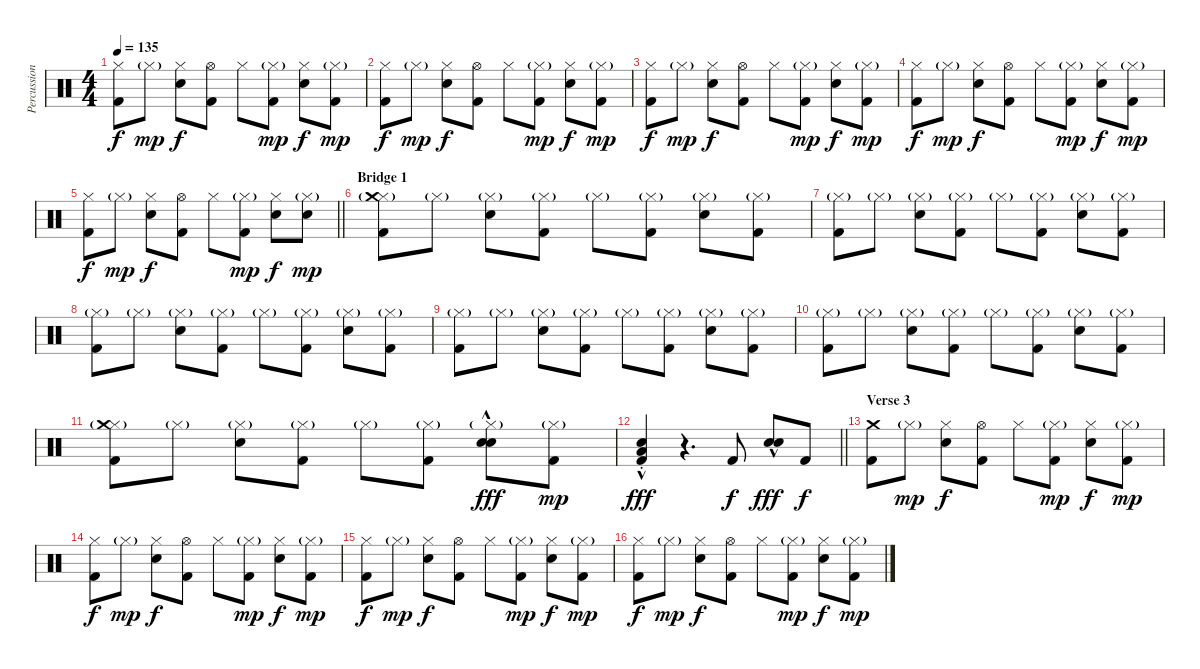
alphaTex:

\track ("Percussion 1" "Percussion") {instrument percussion}
\staff {score}
\articulation defaults
\ts (4 4)
\tempo 135
\clef neutral
\ks c
("Hi-Hat (closed)" "Kick (hit) 2").8{dy f} "Hi-Hat (closed)"{g}.8{dy mp} ("Hi-Hat (closed)" "Electric Snare (hit)").8{dy f} ("Hi-Hat (open)" "Kick (hit) 2").8 "Hi-Hat (closed)".8 ("Hi-Hat (closed)"{g} "Kick (hit) 2").8{dy mp} ("Hi-Hat (closed)" "Electric Snare (hit)").8{dy f} ("Hi-Hat (closed)"{g} "Kick (hit) 2").8{dy mp} |
("Hi-Hat (closed)" "Kick (hit) 2").8{dy f} "Hi-Hat (closed)"{g}.8{dy mp} ("Hi-Hat (closed)" "Electric Snare (hit)").8{dy f} ("Hi-Hat (open)" "Kick (hit) 2").8 "Hi-Hat (closed)".8 ("Hi-Hat (closed)"{g} "Kick (hit) 2").8{dy mp} ("Hi-Hat (closed)" "Electric Snare (hit)").8{dy f} ("Hi-Hat (closed)"{g} "Kick (hit) 2").8{dy mp} |
("Hi-Hat (closed)" "Kick (hit) 2").8{dy f} "Hi-Hat (closed)"{g}.8{dy mp} ("Hi-Hat (closed)" "Electric Snare (hit)").8{dy f} ("Hi-Hat (open)" "Kick (hit) 2").8 "Hi-Hat (closed)".8 ("Hi-Hat (closed)"{g} "Kick (hit) 2").8{dy mp} ("Hi-Hat (closed)" "Electric Snare (hit)").8{dy f} ("Hi-Hat (closed)"{g} "Kick (hit) 2").8{dy mp} |
("Hi-Hat (closed)" "Kick (hit) 2").8{dy f} "Hi-Hat (closed)"{g}.8{dy mp} ("Hi-Hat (closed)" "Electric Snare (hit)").8{dy f} ("Hi-Hat (open)" "Kick (hit) 2").8 "Hi-Hat (closed)".8 ("Hi-Hat (closed)"{g} "Kick (hit) 2").8{dy mp} ("Hi-Hat (closed)" "Electric Snare (hit)").8{dy f} ("Hi-Hat (closed)"{g} "Kick (hit) 2").8{dy mp} |
\barLineRight lightlight
("Hi-Hat (closed)" "Kick (hit) 2").8{dy f} "Hi-Hat (closed)"{g}.8{dy mp} ("Hi-Hat (closed)" "Electric Snare (hit)").8{dy f} ("Hi-Hat (open)" "Kick (hit) 2").8 "Hi-Hat (closed)".8 ("Hi-Hat (closed)"{g} "Kick (hit) 2").8{dy mp} ("Hi-Hat (closed)" "Electric Snare (hit)").8{dy f} ("Hi-Hat (closed)"{g} "Electric Snare (hit)").8{dy mp} |
\section ("" "Bridge 1")
("Hi-Hat (closed)"{g} "Crash medium (hit)" "Kick (hit) 2").8 "Hi-Hat (closed)"{g}.8 ("Hi-Hat (closed)"{g} "Electric Snare (hit)").8 ("Hi-Hat (closed)"{g} "Kick (hit) 2").8 "Hi-Hat (closed)"{g}.8 ("Hi-Hat (closed)"{g} "Kick (hit) 2").8 ("Hi-Hat (closed)"{g} "Electric Snare (hit)").8 ("Hi-Hat (closed)"{g} "Kick (hit) 2").8 |
("Hi-Hat (closed)"{g} "Kick (hit) 2").8 "Hi-Hat (closed)"{g}.8 ("Hi-Hat (closed)"{g} "Electric Snare (hit)").8 ("Hi-Hat (closed)"{g} "Kick (hit) 2").8 "Hi-Hat (closed)"{g}.8 ("Hi-Hat (closed)"{g} "Kick (hit) 2").8 ("Hi-Hat (closed)"{g} "Electric Snare (hit)").8 ("Hi-Hat (closed)"{g} "Kick (hit) 2").8 |
("Hi-Hat (closed)"{g} "Kick (hit) 2").8 "Hi-Hat (closed)"{g}.8 ("Hi-Hat (closed)"{g} "Electric Snare (hit)").8 ("Hi-Hat (closed)"{g} "Kick (hit) 2").8 "Hi-Hat (closed)"{g}.8 ("Hi-Hat (closed)"{g} "Kick (hit) 2").8 ("Hi-Hat (closed)"{g} "Electric Snare (hit)").8 ("Hi-Hat (closed)"{g} "Kick (hit) 2").8 |
("Hi-Hat (closed)"{g} "Kick (hit) 2").8 "Hi-Hat (closed)"{g}.8 ("Hi-Hat (closed)"{g} "Electric Snare (hit)").8 ("Hi-Hat (closed)"{g} "Kick (hit) 2").8 "Hi-Hat (closed)"{g}.8 ("Hi-Hat (closed)"{g} "Kick (hit) 2").8 ("Hi-Hat (closed)"{g} "Electric Snare (hit)").8 ("Hi-Hat (closed)"{g} "Kick (hit) 2").8 |
("Hi-Hat (closed)"{g} "Kick (hit) 2").8 "Hi-Hat (closed)"{g}.8 ("Hi-Hat (closed)"{g} "Electric Snare (hit)").8 ("Hi-Hat (closed)"{g} "Kick (hit) 2").8 "Hi-Hat (closed)"{g}.8 ("Hi-Hat (closed)"{g} "Kick (hit) 2").8 ("Hi-Hat (closed)"{g} "Electric Snare (hit)").8 ("Hi-Hat (closed)"{g} "Kick (hit) 2").8 |
("Hi-Hat (closed)"{g} "Crash medium (hit)" "Kick (hit) 2").8 "Hi-Hat (closed)"{g}.8 ("Hi-Hat (closed)"{g} "Electric Snare (hit)").8 ("Hi-Hat (closed)"{g} "Kick (hit) 2").8 "Hi-Hat (closed)"{g}.8 ("Hi-Hat (closed)"{g} "Kick (hit) 2").8 ("Hi-Hat (closed)"{g} "Electric Snare (hit)"{hac} "Electric Snare (hit)"{hac}).8{bd 60 dy fff} ("Hi-Hat (closed)"{g} "Kick (hit) 2").8{dy mp} |
\barLineRight lightlight
("Electric Snare (hit)"{hac st} "Low Tom (hit)"{hac st} "Kick (hit) 2"{hac st}).4{dy fff} r.4{d} "Kick (hit) 2".8{dy f} ("Electric Snare (hit)"{hac} "Electric Snare (hit)"{hac}).8{bd 60 dy fff} "Kick (hit) 2".8{dy f} |
\section ("" "Verse 3")
("Crash medium (hit)" "Kick (hit) 2").8 "Hi-Hat (closed)"{g}.8{dy mp} ("Hi-Hat (closed)" "Electric Snare (hit)").8{dy f} ("Hi-Hat (open)" "Kick (hit) 2").8 "Hi-Hat (closed)".8 ("Hi-Hat (closed)"{g} "Kick (hit) 2").8{dy mp} ("Hi-Hat (closed)" "Electric Snare (hit)").8{dy f} ("Hi-Hat (closed)"{g} "Kick (hit) 2").8{dy mp} |
("Hi-Hat (closed)" "Kick (hit) 2").8{dy f} "Hi-Hat (closed)"{g}.8{dy mp} ("Hi-Hat (closed)" "Electric Snare (hit)").8{dy f} ("Hi-Hat (open)" "Kick (hit) 2").8 "Hi-Hat (closed)".8 ("Hi-Hat (closed)"{g} "Kick (hit) 2").8{dy mp} ("Hi-Hat (closed)" "Electric Snare (hit)").8{dy f} ("Hi-Hat (closed)"{g} "Kick (hit) 2").8{dy mp} |
("Hi-Hat (closed)" "Kick (hit) 2").8{dy f} "Hi-Hat (closed)"{g}.8{dy mp} ("Hi-Hat (closed)" "Electric Snare (hit)").8{dy f} ("Hi-Hat (open)" "Kick (hit) 2").8 "Hi-Hat (closed)".8 ("Hi-Hat (closed)"{g} "Kick (hit) 2").8{dy mp} ("Hi-Hat (closed)" "Electric Snare (hit)").8{dy f} ("Hi-Hat (closed)"{g} "Kick (hit) 2").8{dy mp} |
("Hi-Hat (closed)" "Kick (hit) 2").8{dy f} "Hi-Hat (closed)"{g}.8{dy mp} ("Hi-Hat (closed)" "Electric Snare (hit)").8{dy f} ("Hi-Hat (open)" "Kick (hit) 2").8 "Hi-Hat (closed)".8 ("Hi-Hat (closed)"{g} "Kick (hit) 2").8{dy mp} ("Hi-Hat (closed)" "Electric Snare (hit)").8{dy f} ("Hi-Hat (closed)"{g} "Kick (hit) 2").8{dy mp}
